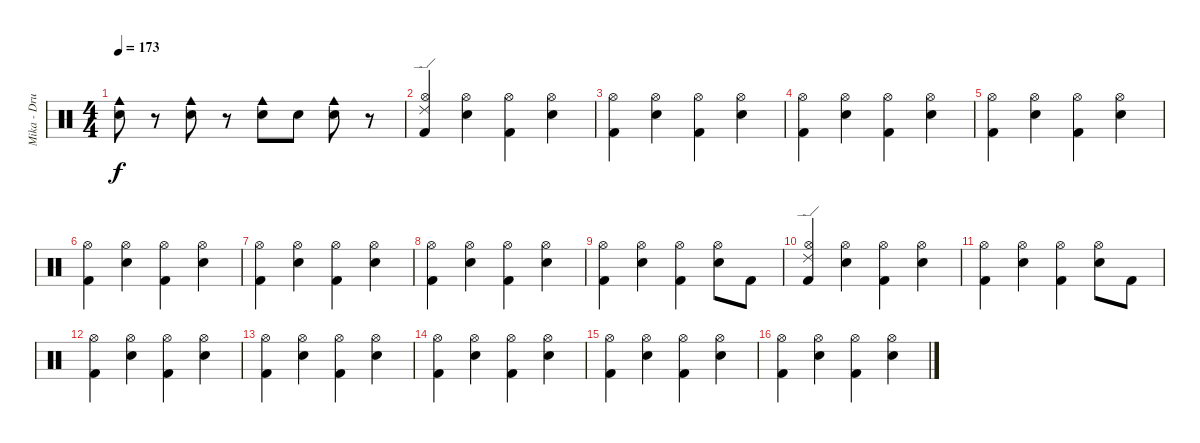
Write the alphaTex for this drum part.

\track ("Mika - Drums" "Mika - Dru") {instrument percussion}
\staff {score}
\articulation defaults
\ts (4 4)
\tempo 173
\clef neutral
\ks c
("Cowbell medium (hit)" "Electric Snare (hit)").8{dy f} r.8 ("Cowbell medium (hit)" "Electric Snare (hit)").8 r.8 ("Cowbell medium (hit)" "Electric Snare (hit)").8 "Electric Snare (hit)".8 ("Cowbell medium (hit)" "Electric Snare (hit)").8 r.8 |
("Ride (edge) 2" "Hi-Hat (open)" "Kick (hit) 2").4 ("Hi-Hat (open)" "Electric Snare (hit)").4 ("Hi-Hat (open)" "Kick (hit) 2").4 ("Hi-Hat (open)" "Electric Snare (hit)").4 |
("Hi-Hat (open)" "Kick (hit) 2").4 ("Hi-Hat (open)" "Electric Snare (hit)").4 ("Hi-Hat (open)" "Kick (hit) 2").4 ("Hi-Hat (open)" "Electric Snare (hit)").4 |
("Hi-Hat (open)" "Kick (hit) 2").4 ("Hi-Hat (open)" "Electric Snare (hit)").4 ("Hi-Hat (open)" "Kick (hit) 2").4 ("Hi-Hat (open)" "Electric Snare (hit)").4 |
("Hi-Hat (open)" "Kick (hit) 2").4 ("Hi-Hat (open)" "Electric Snare (hit)").4 ("Hi-Hat (open)" "Kick (hit) 2").4 ("Hi-Hat (open)" "Electric Snare (hit)").4 |
("Hi-Hat (open)" "Kick (hit) 2").4 ("Hi-Hat (open)" "Electric Snare (hit)").4 ("Hi-Hat (open)" "Kick (hit) 2").4 ("Hi-Hat (open)" "Electric Snare (hit)").4 |
("Hi-Hat (open)" "Kick (hit) 2").4 ("Hi-Hat (open)" "Electric Snare (hit)").4 ("Hi-Hat (open)" "Kick (hit) 2").4 ("Hi-Hat (open)" "Electric Snare (hit)").4 |
("Hi-Hat (open)" "Kick (hit) 2").4 ("Hi-Hat (open)" "Electric Snare (hit)").4 ("Hi-Hat (open)" "Kick (hit) 2").4 ("Hi-Hat (open)" "Electric Snare (hit)").4 |
("Hi-Hat (open)" "Kick (hit) 2").4 ("Hi-Hat (open)" "Electric Snare (hit)").4 ("Hi-Hat (open)" "Kick (hit) 2").4 ("Hi-Hat (open)" "Electric Snare (hit)").8 "Kick (hit) 2".8 |
("Ride (edge) 2" "Hi-Hat (open)" "Kick (hit) 2").4 ("Hi-Hat (open)" "Electric Snare (hit)").4 ("Hi-Hat (open)" "Kick (hit) 2").4 ("Hi-Hat (open)" "Electric Snare (hit)").4 |
("Hi-Hat (open)" "Kick (hit) 2").4 ("Hi-Hat (open)" "Electric Snare (hit)").4 ("Hi-Hat (open)" "Kick (hit) 2").4 ("Hi-Hat (open)" "Electric Snare (hit)").8 "Kick (hit) 2".8 |
("Hi-Hat (open)" "Kick (hit) 2").4 ("Hi-Hat (open)" "Electric Snare (hit)").4 ("Hi-Hat (open)" "Kick (hit) 2").4 ("Hi-Hat (open)" "Electric Snare (hit)").4 |
("Hi-Hat (open)" "Kick (hit) 2").4 ("Hi-Hat (open)" "Electric Snare (hit)").4 ("Hi-Hat (open)" "Kick (hit) 2").4 ("Hi-Hat (open)" "Electric Snare (hit)").4 |
("Hi-Hat (open)" "Kick (hit) 2").4 ("Hi-Hat (open)" "Electric Snare (hit)").4 ("Hi-Hat (open)" "Kick (hit) 2").4 ("Hi-Hat (open)" "Electric Snare (hit)").4 |
("Hi-Hat (open)" "Kick (hit) 2").4 ("Hi-Hat (open)" "Electric Snare (hit)").4 ("Hi-Hat (open)" "Kick (hit) 2").4 ("Hi-Hat (open)" "Electric Snare (hit)").4 |
("Hi-Hat (open)" "Kick (hit) 2").4 ("Hi-Hat (open)" "Electric Snare (hit)").4 ("Hi-Hat (open)" "Kick (hit) 2").4 ("Hi-Hat (open)" "Electric Snare (hit)").4
